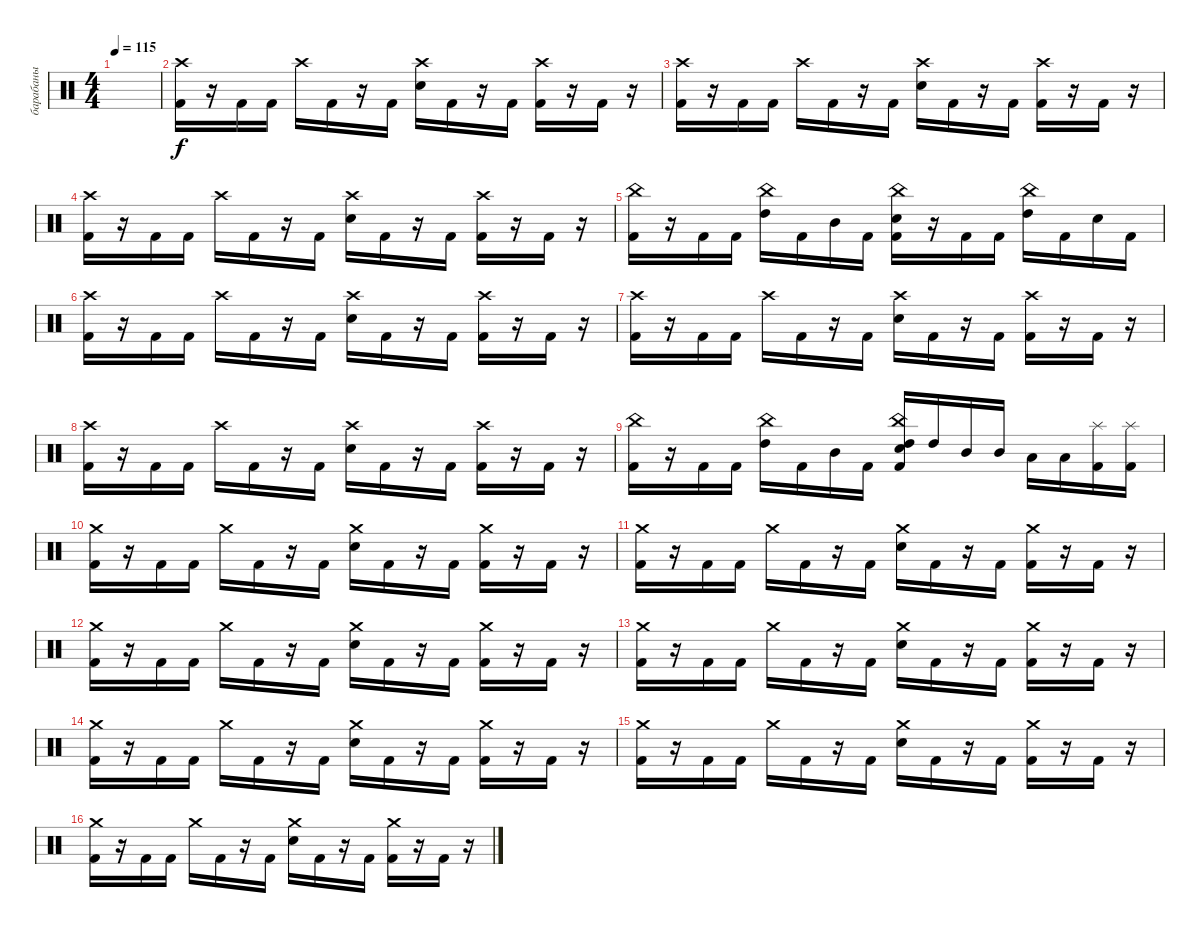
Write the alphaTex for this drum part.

\track ("барабаны" "барабаны") {instrument percussion}
\staff {score}
\articulation defaults
\ts (4 4)
\tempo 115
\clef neutral
\ks c
|
("Crash high (hit)" "Kick (hit) 2").16 r.16 "Kick (hit) 2".16 "Kick (hit) 2".16 "Crash high (hit)".16 "Kick (hit) 2".16 r.16 "Kick (hit) 2".16 ("Crash high (hit)" "Snare (hit) 2").16 "Kick (hit) 2".16 r.16 "Kick (hit) 2".16 ("Crash high (hit)" "Kick (hit) 2").16 r.16 "Kick (hit) 2".16 r.16 |
("Crash high (hit)" "Kick (hit) 2").16 r.16 "Kick (hit) 2".16 "Kick (hit) 2".16 "Crash high (hit)".16 "Kick (hit) 2".16 r.16 "Kick (hit) 2".16 ("Crash high (hit)" "Snare (hit) 2").16 "Kick (hit) 2".16 r.16 "Kick (hit) 2".16 ("Crash high (hit)" "Kick (hit) 2").16 r.16 "Kick (hit) 2".16 r.16 |
("Crash high (hit)" "Kick (hit) 2").16 r.16 "Kick (hit) 2".16 "Kick (hit) 2".16 "Crash high (hit)".16 "Kick (hit) 2".16 r.16 "Kick (hit) 2".16 ("Crash high (hit)" "Snare (hit) 2").16 "Kick (hit) 2".16 r.16 "Kick (hit) 2".16 ("Crash high (hit)" "Kick (hit) 2").16 r.16 "Kick (hit) 2".16 r.16 |
("China (hit)" "Kick (hit) 2").16 r.16 "Kick (hit) 2".16 "Kick (hit) 2".16 ("China (hit)" "High Tom (hit)").16 "Kick (hit) 2".16 "Mid Tom (hit)".16 "Kick (hit) 2".16 ("China (hit)" "Snare (hit) 2" "Kick (hit) 2").16 r.16 "Kick (hit) 2".16 "Kick (hit) 2".16 ("China (hit)" "High Tom (hit)").16 "Kick (hit) 2".16 "Snare (hit) 2".16 "Kick (hit) 2".16 |
("Crash high (hit)" "Kick (hit) 2").16 r.16 "Kick (hit) 2".16 "Kick (hit) 2".16 "Crash high (hit)".16 "Kick (hit) 2".16 r.16 "Kick (hit) 2".16 ("Crash high (hit)" "Snare (hit) 2").16 "Kick (hit) 2".16 r.16 "Kick (hit) 2".16 ("Crash high (hit)" "Kick (hit) 2").16 r.16 "Kick (hit) 2".16 r.16 |
("Crash high (hit)" "Kick (hit) 2").16 r.16 "Kick (hit) 2".16 "Kick (hit) 2".16 "Crash high (hit)".16 "Kick (hit) 2".16 r.16 "Kick (hit) 2".16 ("Crash high (hit)" "Snare (hit) 2").16 "Kick (hit) 2".16 r.16 "Kick (hit) 2".16 ("Crash high (hit)" "Kick (hit) 2").16 r.16 "Kick (hit) 2".16 r.16 |
("Crash high (hit)" "Kick (hit) 2").16 r.16 "Kick (hit) 2".16 "Kick (hit) 2".16 "Crash high (hit)".16 "Kick (hit) 2".16 r.16 "Kick (hit) 2".16 ("Crash high (hit)" "Snare (hit) 2").16 "Kick (hit) 2".16 r.16 "Kick (hit) 2".16 ("Crash high (hit)" "Kick (hit) 2").16 r.16 "Kick (hit) 2".16 r.16 |
("China (hit)" "Kick (hit) 2").16 r.16 "Kick (hit) 2".16 "Kick (hit) 2".16 ("China (hit)" "High Tom (hit)").16 "Kick (hit) 2".16 "Mid Tom (hit)".16 "Kick (hit) 2".16 ("China (hit)" "Snare (hit) 2" "High Tom (hit)" "Kick (hit) 2").16 "High Tom (hit)".16 "Mid Tom (hit)".16 "Mid Tom (hit)".16 "Low Tom (hit)".16 "Low Tom (hit)".16 ("Splash (hit)" "Kick (hit) 2").16 ("Splash (hit)" "Kick (hit) 2").16 |
("Crash medium (hit)" "Kick (hit) 2").16 r.16 "Kick (hit) 2".16 "Kick (hit) 2".16 "Crash medium (hit)".16 "Kick (hit) 2".16 r.16 "Kick (hit) 2".16 ("Crash medium (hit)" "Snare (hit) 2").16 "Kick (hit) 2".16 r.16 "Kick (hit) 2".16 ("Crash medium (hit)" "Kick (hit) 2").16 r.16 "Kick (hit) 2".16 r.16 |
("Crash medium (hit)" "Kick (hit) 2").16 r.16 "Kick (hit) 2".16 "Kick (hit) 2".16 "Crash medium (hit)".16 "Kick (hit) 2".16 r.16 "Kick (hit) 2".16 ("Crash medium (hit)" "Snare (hit) 2").16 "Kick (hit) 2".16 r.16 "Kick (hit) 2".16 ("Crash medium (hit)" "Kick (hit) 2").16 r.16 "Kick (hit) 2".16 r.16 |
("Crash medium (hit)" "Kick (hit) 2").16 r.16 "Kick (hit) 2".16 "Kick (hit) 2".16 "Crash medium (hit)".16 "Kick (hit) 2".16 r.16 "Kick (hit) 2".16 ("Crash medium (hit)" "Snare (hit) 2").16 "Kick (hit) 2".16 r.16 "Kick (hit) 2".16 ("Crash medium (hit)" "Kick (hit) 2").16 r.16 "Kick (hit) 2".16 r.16 |
("Crash medium (hit)" "Kick (hit) 2").16 r.16 "Kick (hit) 2".16 "Kick (hit) 2".16 "Crash medium (hit)".16 "Kick (hit) 2".16 r.16 "Kick (hit) 2".16 ("Crash medium (hit)" "Snare (hit) 2").16 "Kick (hit) 2".16 r.16 "Kick (hit) 2".16 ("Crash medium (hit)" "Kick (hit) 2").16 r.16 "Kick (hit) 2".16 r.16 |
("Crash medium (hit)" "Kick (hit) 2").16 r.16 "Kick (hit) 2".16 "Kick (hit) 2".16 "Crash medium (hit)".16 "Kick (hit) 2".16 r.16 "Kick (hit) 2".16 ("Crash medium (hit)" "Snare (hit) 2").16 "Kick (hit) 2".16 r.16 "Kick (hit) 2".16 ("Crash medium (hit)" "Kick (hit) 2").16 r.16 "Kick (hit) 2".16 r.16 |
("Crash medium (hit)" "Kick (hit) 2").16 r.16 "Kick (hit) 2".16 "Kick (hit) 2".16 "Crash medium (hit)".16 "Kick (hit) 2".16 r.16 "Kick (hit) 2".16 ("Crash medium (hit)" "Snare (hit) 2").16 "Kick (hit) 2".16 r.16 "Kick (hit) 2".16 ("Crash medium (hit)" "Kick (hit) 2").16 r.16 "Kick (hit) 2".16 r.16 |
("Crash medium (hit)" "Kick (hit) 2").16 r.16 "Kick (hit) 2".16 "Kick (hit) 2".16 "Crash medium (hit)".16 "Kick (hit) 2".16 r.16 "Kick (hit) 2".16 ("Crash medium (hit)" "Snare (hit) 2").16 "Kick (hit) 2".16 r.16 "Kick (hit) 2".16 ("Crash medium (hit)" "Kick (hit) 2").16 r.16 "Kick (hit) 2".16 r.16
